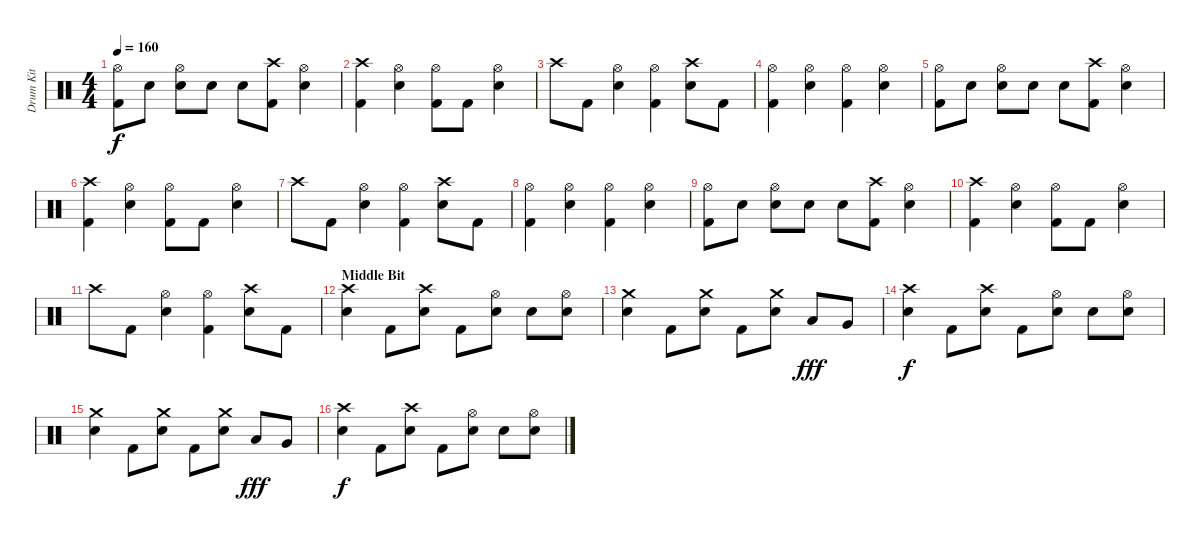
\track ("Drum Kit" "Drum Kit") {instrument percussion}
\staff {score}
\articulation defaults
\ts (4 4)
\tempo 160
\clef neutral
\ks c
("Hi-Hat (open)" "Kick (hit) 2").8{dy f} "Electric Snare (hit)".8 ("Hi-Hat (open)" "Electric Snare (hit)").8 "Electric Snare (hit)".8 "Electric Snare (hit)".8 ("Crash high (hit)" "Kick (hit) 2").8 ("Hi-Hat (open)" "Electric Snare (hit)").4 |
("Crash high (hit)" "Kick (hit) 2").4 ("Hi-Hat (open)" "Electric Snare (hit)").4 ("Hi-Hat (open)" "Kick (hit) 2").8 "Kick (hit) 2".8 ("Hi-Hat (open)" "Electric Snare (hit)").4 |
"Crash high (hit)".8 "Kick (hit) 2".8 ("Hi-Hat (open)" "Electric Snare (hit)").4 ("Hi-Hat (open)" "Kick (hit) 2").4 ("Crash high (hit)" "Electric Snare (hit)").8 "Kick (hit) 2".8 |
("Hi-Hat (open)" "Kick (hit) 2").4 ("Hi-Hat (open)" "Electric Snare (hit)").4 ("Hi-Hat (open)" "Kick (hit) 2").4 ("Hi-Hat (open)" "Electric Snare (hit)").4 |
("Hi-Hat (open)" "Kick (hit) 2").8 "Electric Snare (hit)".8 ("Hi-Hat (open)" "Electric Snare (hit)").8 "Electric Snare (hit)".8 "Electric Snare (hit)".8 ("Crash high (hit)" "Kick (hit) 2").8 ("Hi-Hat (open)" "Electric Snare (hit)").4 |
("Crash high (hit)" "Kick (hit) 2").4 ("Hi-Hat (open)" "Electric Snare (hit)").4 ("Hi-Hat (open)" "Kick (hit) 2").8 "Kick (hit) 2".8 ("Hi-Hat (open)" "Electric Snare (hit)").4 |
"Crash high (hit)".8 "Kick (hit) 2".8 ("Hi-Hat (open)" "Electric Snare (hit)").4 ("Hi-Hat (open)" "Kick (hit) 2").4 ("Crash high (hit)" "Electric Snare (hit)").8 "Kick (hit) 2".8 |
("Hi-Hat (open)" "Kick (hit) 2").4 ("Hi-Hat (open)" "Electric Snare (hit)").4 ("Hi-Hat (open)" "Kick (hit) 2").4 ("Hi-Hat (open)" "Electric Snare (hit)").4 |
("Hi-Hat (open)" "Kick (hit) 2").8 "Electric Snare (hit)".8 ("Hi-Hat (open)" "Electric Snare (hit)").8 "Electric Snare (hit)".8 "Electric Snare (hit)".8 ("Crash high (hit)" "Kick (hit) 2").8 ("Hi-Hat (open)" "Electric Snare (hit)").4 |
("Crash high (hit)" "Kick (hit) 2").4 ("Hi-Hat (open)" "Electric Snare (hit)").4 ("Hi-Hat (open)" "Kick (hit) 2").8 "Kick (hit) 2".8 ("Hi-Hat (open)" "Electric Snare (hit)").4 |
"Crash high (hit)".8 "Kick (hit) 2".8 ("Hi-Hat (open)" "Electric Snare (hit)").4 ("Hi-Hat (open)" "Kick (hit) 2").4 ("Crash high (hit)" "Electric Snare (hit)").8 "Kick (hit) 2".8 |
\section ("" "Middle Bit")
("Crash high (hit)" "Electric Snare (hit)").4 "Kick (hit) 2".8 ("Crash high (hit)" "Electric Snare (hit)").8 "Kick (hit) 2".8 ("Hi-Hat (open)" "Electric Snare (hit)").8 "Electric Snare (hit)".8 ("Hi-Hat (open)" "Electric Snare (hit)").8 |
("Crash medium (hit)" "Electric Snare (hit)").4 "Kick (hit) 2".8 ("Crash medium (hit)" "Electric Snare (hit)").8 "Kick (hit) 2".8 ("Crash medium (hit)" "Electric Snare (hit)").8 "Low Tom (hit)".8{dy fff} "Very Low Tom (hit)".8 |
("Crash high (hit)" "Electric Snare (hit)").4{dy f} "Kick (hit) 2".8 ("Crash high (hit)" "Electric Snare (hit)").8 "Kick (hit) 2".8 ("Hi-Hat (open)" "Electric Snare (hit)").8 "Electric Snare (hit)".8 ("Hi-Hat (open)" "Electric Snare (hit)").8 |
("Crash medium (hit)" "Electric Snare (hit)").4 "Kick (hit) 2".8 ("Crash medium (hit)" "Electric Snare (hit)").8 "Kick (hit) 2".8 ("Crash medium (hit)" "Electric Snare (hit)").8 "Low Tom (hit)".8{dy fff} "Very Low Tom (hit)".8 |
("Crash high (hit)" "Electric Snare (hit)").4{dy f} "Kick (hit) 2".8 ("Crash high (hit)" "Electric Snare (hit)").8 "Kick (hit) 2".8 ("Hi-Hat (open)" "Electric Snare (hit)").8 "Electric Snare (hit)".8 ("Hi-Hat (open)" "Electric Snare (hit)").8
